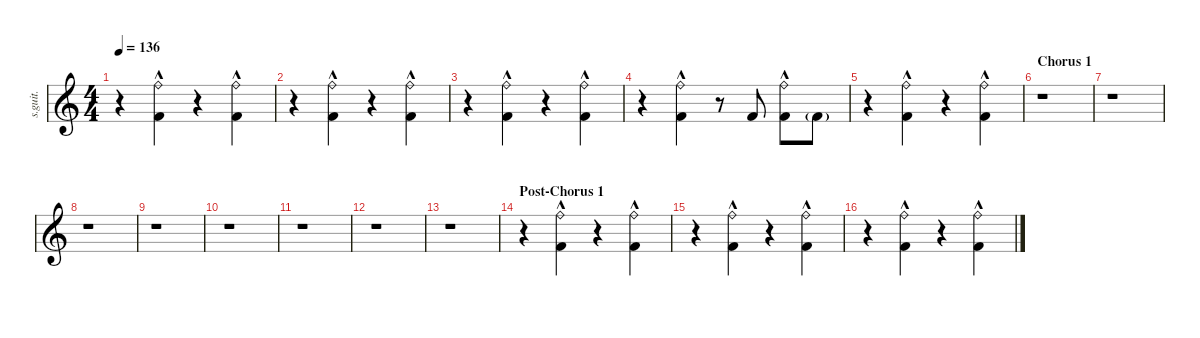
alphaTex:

\defaultSystemsLayout 4
\hideDynamics
\bracketExtendMode nobrackets
\track ("Chris Fehn" "s.guit.") {instrument percussion}
\staff {score}
\articulation defaults
\ts (4 4)
\tempo 136
\clef g2
\ks c
r.4{dy fff} ("Ride (bell)"{hac} "Kick (hit) 2"{hac}).4{lyrics (0 "") lyrics (1 "") lyrics (2 "") lyrics (3 "") lyrics (4 "")} r.4 ("Ride (bell)"{hac} "Kick (hit) 2"{hac}).4{lyrics (0 "") lyrics (1 "") lyrics (2 "") lyrics (3 "") lyrics (4 "")} |
r.4 ("Ride (bell)"{hac} "Kick (hit) 2"{hac}).4{lyrics (0 "") lyrics (1 "") lyrics (2 "") lyrics (3 "") lyrics (4 "")} r.4 ("Ride (bell)"{hac} "Kick (hit) 2"{hac}).4{lyrics (0 "") lyrics (1 "") lyrics (2 "") lyrics (3 "") lyrics (4 "")} |
r.4 ("Ride (bell)"{hac} "Kick (hit) 2"{hac}).4{lyrics (0 "") lyrics (1 "") lyrics (2 "") lyrics (3 "") lyrics (4 "")} r.4 ("Ride (bell)"{hac} "Kick (hit) 2"{hac}).4{lyrics (0 "") lyrics (1 "") lyrics (2 "") lyrics (3 "") lyrics (4 "")} |
r.4 ("Ride (bell)"{hac} "Kick (hit) 2"{hac}).4{lyrics (0 "") lyrics (1 "") lyrics (2 "") lyrics (3 "") lyrics (4 "")} r.8 "Kick (hit) 2".8{lyrics (0 "") lyrics (1 "") lyrics (2 "") lyrics (3 "") lyrics (4 "")} ("Ride (bell)"{hac} "Kick (hit) 2"{hac}).8{lyrics (0 "") lyrics (1 "") lyrics (2 "") lyrics (3 "") lyrics (4 "")} "Kick (hit) 2"{g}.8{lyrics (0 "") lyrics (1 "") lyrics (2 "") lyrics (3 "") lyrics (4 "")} |
r.4 ("Ride (bell)"{hac} "Kick (hit) 2"{hac}).4{lyrics (0 "") lyrics (1 "") lyrics (2 "") lyrics (3 "") lyrics (4 "")} r.4 ("Ride (bell)"{hac} "Kick (hit) 2"{hac}).4{lyrics (0 "") lyrics (1 "") lyrics (2 "") lyrics (3 "") lyrics (4 "")} |
\section ("" "Chorus 1")
r.1 |
r.1 |
r.1 |
r.1 |
r.1 |
r.1 |
r.1 |
r.1 |
\section ("" "Post-Chorus 1")
r.4 ("Ride (bell)"{hac} "Kick (hit) 2"{hac}).4{lyrics (0 "") lyrics (1 "") lyrics (2 "") lyrics (3 "") lyrics (4 "")} r.4 ("Ride (bell)"{hac} "Kick (hit) 2"{hac}).4{lyrics (0 "") lyrics (1 "") lyrics (2 "") lyrics (3 "") lyrics (4 "")} |
r.4 ("Ride (bell)"{hac} "Kick (hit) 2"{hac}).4{lyrics (0 "") lyrics (1 "") lyrics (2 "") lyrics (3 "") lyrics (4 "")} r.4 ("Ride (bell)"{hac} "Kick (hit) 2"{hac}).4{lyrics (0 "") lyrics (1 "") lyrics (2 "") lyrics (3 "") lyrics (4 "")} |
r.4 ("Ride (bell)"{hac} "Kick (hit) 2"{hac}).4{lyrics (0 "") lyrics (1 "") lyrics (2 "") lyrics (3 "") lyrics (4 "")} r.4 ("Ride (bell)"{hac} "Kick (hit) 2"{hac}).4{lyrics (0 "") lyrics (1 "") lyrics (2 "") lyrics (3 "") lyrics (4 "")}
